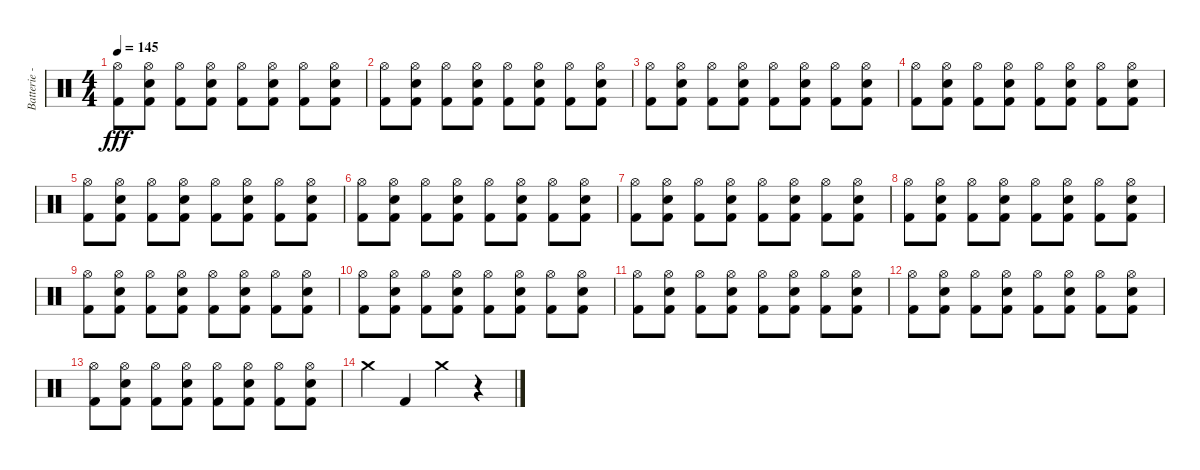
\track ("Batterie - Larzon" "Batterie -") {instrument percussion}
\staff {score}
\articulation defaults
\ts (4 4)
\tempo 145
\clef neutral
\ks c
("Kick (hit) 2" "Hi-Hat (open)").8{dy fff} ("Kick (hit) 2" "Hi-Hat (open)" "Electric Snare (hit)").8 ("Kick (hit) 2" "Hi-Hat (open)").8 ("Kick (hit) 2" "Hi-Hat (open)" "Electric Snare (hit)").8 ("Kick (hit) 2" "Hi-Hat (open)").8 ("Kick (hit) 2" "Hi-Hat (open)" "Electric Snare (hit)").8 ("Kick (hit) 2" "Hi-Hat (open)").8 ("Kick (hit) 2" "Hi-Hat (open)" "Electric Snare (hit)").8 |
("Kick (hit) 2" "Hi-Hat (open)").8 ("Kick (hit) 2" "Hi-Hat (open)" "Electric Snare (hit)").8 ("Kick (hit) 2" "Hi-Hat (open)").8 ("Kick (hit) 2" "Hi-Hat (open)" "Electric Snare (hit)").8 ("Kick (hit) 2" "Hi-Hat (open)").8 ("Kick (hit) 2" "Hi-Hat (open)" "Electric Snare (hit)").8 ("Kick (hit) 2" "Hi-Hat (open)").8 ("Kick (hit) 2" "Hi-Hat (open)" "Electric Snare (hit)").8 |
("Kick (hit) 2" "Hi-Hat (open)").8 ("Kick (hit) 2" "Hi-Hat (open)" "Electric Snare (hit)").8 ("Kick (hit) 2" "Hi-Hat (open)").8 ("Kick (hit) 2" "Hi-Hat (open)" "Electric Snare (hit)").8 ("Kick (hit) 2" "Hi-Hat (open)").8 ("Kick (hit) 2" "Hi-Hat (open)" "Electric Snare (hit)").8 ("Kick (hit) 2" "Hi-Hat (open)").8 ("Kick (hit) 2" "Hi-Hat (open)" "Electric Snare (hit)").8 |
("Kick (hit) 2" "Hi-Hat (open)").8 ("Kick (hit) 2" "Hi-Hat (open)" "Electric Snare (hit)").8 ("Kick (hit) 2" "Hi-Hat (open)").8 ("Kick (hit) 2" "Hi-Hat (open)" "Electric Snare (hit)").8 ("Kick (hit) 2" "Hi-Hat (open)").8 ("Kick (hit) 2" "Hi-Hat (open)" "Electric Snare (hit)").8 ("Kick (hit) 2" "Hi-Hat (open)").8 ("Kick (hit) 2" "Hi-Hat (open)" "Electric Snare (hit)").8 |
("Kick (hit) 2" "Hi-Hat (open)").8 ("Kick (hit) 2" "Hi-Hat (open)" "Electric Snare (hit)").8 ("Kick (hit) 2" "Hi-Hat (open)").8 ("Kick (hit) 2" "Hi-Hat (open)" "Electric Snare (hit)").8 ("Kick (hit) 2" "Hi-Hat (open)").8 ("Kick (hit) 2" "Hi-Hat (open)" "Electric Snare (hit)").8 ("Kick (hit) 2" "Hi-Hat (open)").8 ("Kick (hit) 2" "Hi-Hat (open)" "Electric Snare (hit)").8 |
("Kick (hit) 2" "Hi-Hat (open)").8 ("Kick (hit) 2" "Hi-Hat (open)" "Electric Snare (hit)").8 ("Kick (hit) 2" "Hi-Hat (open)").8 ("Kick (hit) 2" "Hi-Hat (open)" "Electric Snare (hit)").8 ("Kick (hit) 2" "Hi-Hat (open)").8 ("Kick (hit) 2" "Hi-Hat (open)" "Electric Snare (hit)").8 ("Kick (hit) 2" "Hi-Hat (open)").8 ("Kick (hit) 2" "Hi-Hat (open)" "Electric Snare (hit)").8 |
("Kick (hit) 2" "Hi-Hat (open)").8 ("Kick (hit) 2" "Hi-Hat (open)" "Electric Snare (hit)").8 ("Kick (hit) 2" "Hi-Hat (open)").8 ("Kick (hit) 2" "Hi-Hat (open)" "Electric Snare (hit)").8 ("Kick (hit) 2" "Hi-Hat (open)").8 ("Kick (hit) 2" "Hi-Hat (open)" "Electric Snare (hit)").8 ("Kick (hit) 2" "Hi-Hat (open)").8 ("Kick (hit) 2" "Hi-Hat (open)" "Electric Snare (hit)").8 |
("Kick (hit) 2" "Hi-Hat (open)").8 ("Kick (hit) 2" "Hi-Hat (open)" "Electric Snare (hit)").8 ("Kick (hit) 2" "Hi-Hat (open)").8 ("Kick (hit) 2" "Hi-Hat (open)" "Electric Snare (hit)").8 ("Kick (hit) 2" "Hi-Hat (open)").8 ("Kick (hit) 2" "Hi-Hat (open)" "Electric Snare (hit)").8 ("Kick (hit) 2" "Hi-Hat (open)").8 ("Kick (hit) 2" "Hi-Hat (open)" "Electric Snare (hit)").8 |
("Kick (hit) 2" "Hi-Hat (open)").8 ("Kick (hit) 2" "Hi-Hat (open)" "Electric Snare (hit)").8 ("Kick (hit) 2" "Hi-Hat (open)").8 ("Kick (hit) 2" "Hi-Hat (open)" "Electric Snare (hit)").8 ("Kick (hit) 2" "Hi-Hat (open)").8 ("Kick (hit) 2" "Hi-Hat (open)" "Electric Snare (hit)").8 ("Kick (hit) 2" "Hi-Hat (open)").8 ("Kick (hit) 2" "Hi-Hat (open)" "Electric Snare (hit)").8 |
("Kick (hit) 2" "Hi-Hat (open)").8 ("Kick (hit) 2" "Hi-Hat (open)" "Electric Snare (hit)").8 ("Kick (hit) 2" "Hi-Hat (open)").8 ("Kick (hit) 2" "Hi-Hat (open)" "Electric Snare (hit)").8 ("Kick (hit) 2" "Hi-Hat (open)").8 ("Kick (hit) 2" "Hi-Hat (open)" "Electric Snare (hit)").8 ("Kick (hit) 2" "Hi-Hat (open)").8 ("Kick (hit) 2" "Hi-Hat (open)" "Electric Snare (hit)").8 |
("Kick (hit) 2" "Hi-Hat (open)").8 ("Kick (hit) 2" "Hi-Hat (open)" "Electric Snare (hit)").8 ("Kick (hit) 2" "Hi-Hat (open)").8 ("Kick (hit) 2" "Hi-Hat (open)" "Electric Snare (hit)").8 ("Kick (hit) 2" "Hi-Hat (open)").8 ("Kick (hit) 2" "Hi-Hat (open)" "Electric Snare (hit)").8 ("Kick (hit) 2" "Hi-Hat (open)").8 ("Kick (hit) 2" "Hi-Hat (open)" "Electric Snare (hit)").8 |
("Kick (hit) 2" "Hi-Hat (open)").8 ("Kick (hit) 2" "Hi-Hat (open)" "Electric Snare (hit)").8 ("Kick (hit) 2" "Hi-Hat (open)").8 ("Kick (hit) 2" "Hi-Hat (open)" "Electric Snare (hit)").8 ("Kick (hit) 2" "Hi-Hat (open)").8 ("Kick (hit) 2" "Hi-Hat (open)" "Electric Snare (hit)").8 ("Kick (hit) 2" "Hi-Hat (open)").8 ("Kick (hit) 2" "Hi-Hat (open)" "Electric Snare (hit)").8 |
("Kick (hit) 2" "Hi-Hat (open)").8 ("Kick (hit) 2" "Hi-Hat (open)" "Electric Snare (hit)").8 ("Kick (hit) 2" "Hi-Hat (open)").8 ("Kick (hit) 2" "Hi-Hat (open)" "Electric Snare (hit)").8 ("Kick (hit) 2" "Hi-Hat (open)").8 ("Kick (hit) 2" "Hi-Hat (open)" "Electric Snare (hit)").8 ("Kick (hit) 2" "Hi-Hat (open)").8 ("Kick (hit) 2" "Hi-Hat (open)" "Electric Snare (hit)").8 |
"Crash medium (hit)".4 "Kick (hit) 2".4 "Crash medium (hit)".4 r.4
